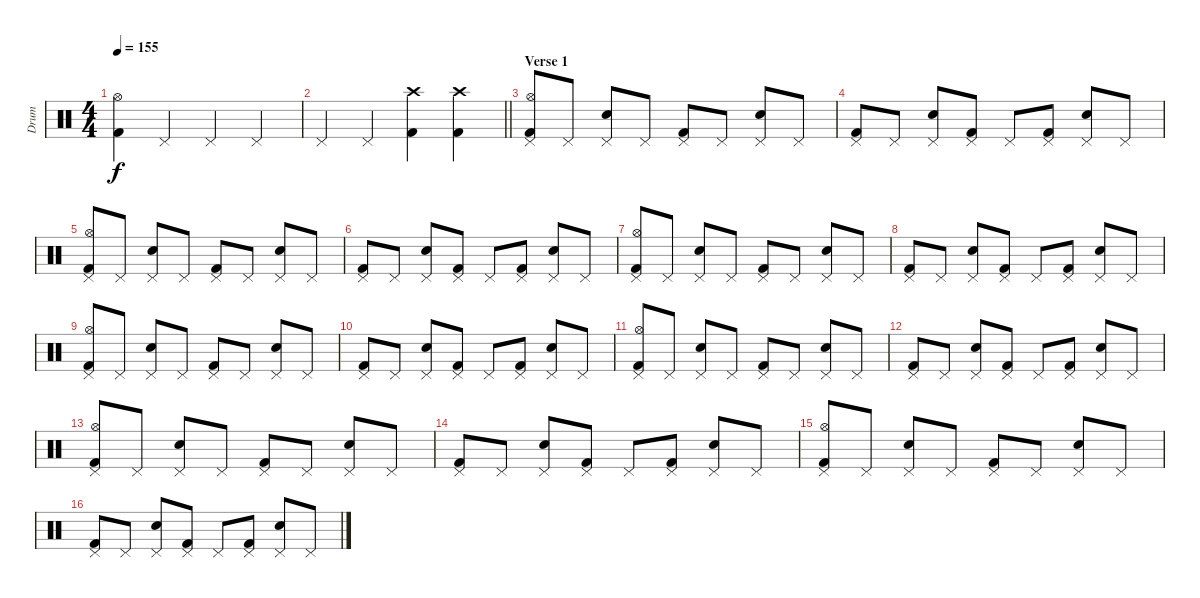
\track ("Drum" "Drum") {instrument percussion}
\staff {score}
\articulation defaults
\ts (4 4)
\tempo 155
\clef neutral
\ks c
("Kick (hit) 2" "Hi-Hat (open)").4{dy f} "Pedal Hi-Hat (hit)".4 "Pedal Hi-Hat (hit)".4 "Pedal Hi-Hat (hit)".4 |
\barLineRight lightlight "Pedal Hi-Hat (hit)".4 "Pedal Hi-Hat (hit)".4
("Kick (hit) 2" "Crash high (hit)").4 ("Kick (hit) 2" "Crash high (hit)").4 |
\section ("" "Verse 1")
("Kick (hit) 2" "Pedal Hi-Hat (hit)" "Hi-Hat (open)").8 "Pedal Hi-Hat (hit)".8 ("Electric Snare (hit)" "Pedal Hi-Hat (hit)").8 "Pedal Hi-Hat (hit)".8 ("Kick (hit) 2" "Pedal Hi-Hat (hit)").8 "Pedal Hi-Hat (hit)".8 ("Electric Snare (hit)" "Pedal Hi-Hat (hit)").8 "Pedal Hi-Hat (hit)".8 |
("Kick (hit) 2" "Pedal Hi-Hat (hit)").8 "Pedal Hi-Hat (hit)".8 ("Electric Snare (hit)" "Pedal Hi-Hat (hit)").8 ("Kick (hit) 2" "Pedal Hi-Hat (hit)").8 "Pedal Hi-Hat (hit)".8 ("Kick (hit) 2" "Pedal Hi-Hat (hit)").8 ("Electric Snare (hit)" "Pedal Hi-Hat (hit)").8 "Pedal Hi-Hat (hit)".8 |
("Kick (hit) 2" "Pedal Hi-Hat (hit)" "Hi-Hat (open)").8 "Pedal Hi-Hat (hit)".8 ("Electric Snare (hit)" "Pedal Hi-Hat (hit)").8 "Pedal Hi-Hat (hit)".8 ("Kick (hit) 2" "Pedal Hi-Hat (hit)").8 "Pedal Hi-Hat (hit)".8 ("Electric Snare (hit)" "Pedal Hi-Hat (hit)").8 "Pedal Hi-Hat (hit)".8 |
("Kick (hit) 2" "Pedal Hi-Hat (hit)").8 "Pedal Hi-Hat (hit)".8 ("Electric Snare (hit)" "Pedal Hi-Hat (hit)").8 ("Kick (hit) 2" "Pedal Hi-Hat (hit)").8 "Pedal Hi-Hat (hit)".8 ("Kick (hit) 2" "Pedal Hi-Hat (hit)").8 ("Electric Snare (hit)" "Pedal Hi-Hat (hit)").8 "Pedal Hi-Hat (hit)".8 |
("Kick (hit) 2" "Pedal Hi-Hat (hit)" "Hi-Hat (open)").8 "Pedal Hi-Hat (hit)".8 ("Electric Snare (hit)" "Pedal Hi-Hat (hit)").8 "Pedal Hi-Hat (hit)".8 ("Kick (hit) 2" "Pedal Hi-Hat (hit)").8 "Pedal Hi-Hat (hit)".8 ("Electric Snare (hit)" "Pedal Hi-Hat (hit)").8 "Pedal Hi-Hat (hit)".8 |
("Kick (hit) 2" "Pedal Hi-Hat (hit)").8 "Pedal Hi-Hat (hit)".8 ("Electric Snare (hit)" "Pedal Hi-Hat (hit)").8 ("Kick (hit) 2" "Pedal Hi-Hat (hit)").8 "Pedal Hi-Hat (hit)".8 ("Kick (hit) 2" "Pedal Hi-Hat (hit)").8 ("Electric Snare (hit)" "Pedal Hi-Hat (hit)").8 "Pedal Hi-Hat (hit)".8 |
("Kick (hit) 2" "Pedal Hi-Hat (hit)" "Hi-Hat (open)").8 "Pedal Hi-Hat (hit)".8 ("Electric Snare (hit)" "Pedal Hi-Hat (hit)").8 "Pedal Hi-Hat (hit)".8 ("Kick (hit) 2" "Pedal Hi-Hat (hit)").8 "Pedal Hi-Hat (hit)".8 ("Electric Snare (hit)" "Pedal Hi-Hat (hit)").8 "Pedal Hi-Hat (hit)".8 |
("Kick (hit) 2" "Pedal Hi-Hat (hit)").8 "Pedal Hi-Hat (hit)".8 ("Electric Snare (hit)" "Pedal Hi-Hat (hit)").8 ("Kick (hit) 2" "Pedal Hi-Hat (hit)").8 "Pedal Hi-Hat (hit)".8 ("Kick (hit) 2" "Pedal Hi-Hat (hit)").8 ("Electric Snare (hit)" "Pedal Hi-Hat (hit)").8 "Pedal Hi-Hat (hit)".8 |
("Kick (hit) 2" "Pedal Hi-Hat (hit)" "Hi-Hat (open)").8 "Pedal Hi-Hat (hit)".8 ("Electric Snare (hit)" "Pedal Hi-Hat (hit)").8 "Pedal Hi-Hat (hit)".8 ("Kick (hit) 2" "Pedal Hi-Hat (hit)").8 "Pedal Hi-Hat (hit)".8 ("Electric Snare (hit)" "Pedal Hi-Hat (hit)").8 "Pedal Hi-Hat (hit)".8 |
("Kick (hit) 2" "Pedal Hi-Hat (hit)").8 "Pedal Hi-Hat (hit)".8 ("Electric Snare (hit)" "Pedal Hi-Hat (hit)").8 ("Kick (hit) 2" "Pedal Hi-Hat (hit)").8 "Pedal Hi-Hat (hit)".8 ("Kick (hit) 2" "Pedal Hi-Hat (hit)").8 ("Electric Snare (hit)" "Pedal Hi-Hat (hit)").8 "Pedal Hi-Hat (hit)".8 |
("Kick (hit) 2" "Pedal Hi-Hat (hit)" "Hi-Hat (open)").8 "Pedal Hi-Hat (hit)".8 ("Electric Snare (hit)" "Pedal Hi-Hat (hit)").8 "Pedal Hi-Hat (hit)".8 ("Kick (hit) 2" "Pedal Hi-Hat (hit)").8 "Pedal Hi-Hat (hit)".8 ("Electric Snare (hit)" "Pedal Hi-Hat (hit)").8 "Pedal Hi-Hat (hit)".8 |
("Kick (hit) 2" "Pedal Hi-Hat (hit)").8 "Pedal Hi-Hat (hit)".8 ("Electric Snare (hit)" "Pedal Hi-Hat (hit)").8 ("Kick (hit) 2" "Pedal Hi-Hat (hit)").8 "Pedal Hi-Hat (hit)".8 ("Kick (hit) 2" "Pedal Hi-Hat (hit)").8 ("Electric Snare (hit)" "Pedal Hi-Hat (hit)").8 "Pedal Hi-Hat (hit)".8 |
("Kick (hit) 2" "Pedal Hi-Hat (hit)" "Hi-Hat (open)").8 "Pedal Hi-Hat (hit)".8 ("Electric Snare (hit)" "Pedal Hi-Hat (hit)").8 "Pedal Hi-Hat (hit)".8 ("Kick (hit) 2" "Pedal Hi-Hat (hit)").8 "Pedal Hi-Hat (hit)".8 ("Electric Snare (hit)" "Pedal Hi-Hat (hit)").8 "Pedal Hi-Hat (hit)".8 |
("Kick (hit) 2" "Pedal Hi-Hat (hit)").8 "Pedal Hi-Hat (hit)".8 ("Electric Snare (hit)" "Pedal Hi-Hat (hit)").8 ("Kick (hit) 2" "Pedal Hi-Hat (hit)").8 "Pedal Hi-Hat (hit)".8 ("Kick (hit) 2" "Pedal Hi-Hat (hit)").8 ("Electric Snare (hit)" "Pedal Hi-Hat (hit)").8 "Pedal Hi-Hat (hit)".8
